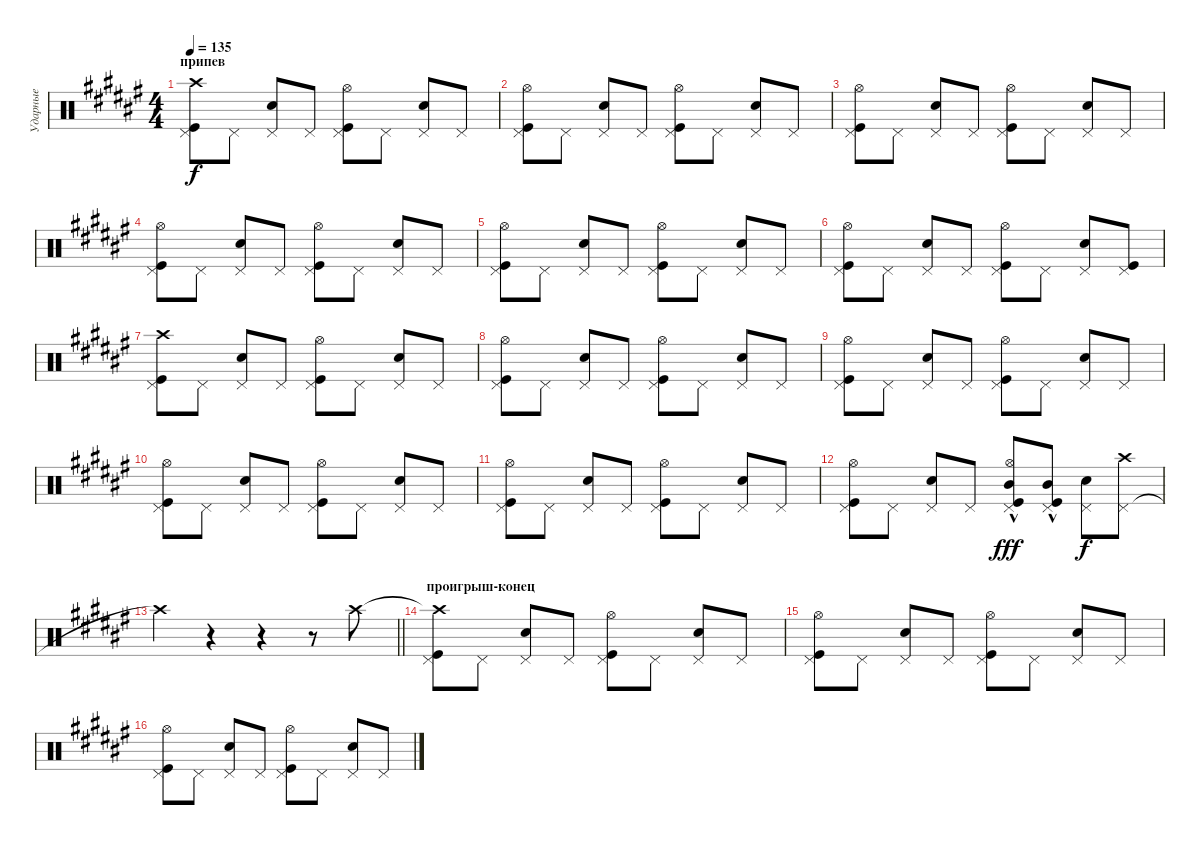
\track ("Ударные" "Ударные") {instrument percussion}
\staff {score}
\articulation defaults
\ts (4 4)
\section ("" "припев")
\tempo 135
\clef neutral
\ks d#minor
("Pedal Hi-Hat (hit)" "Kick (hit)" "Crash high (hit)").8{dy f} "Pedal Hi-Hat (hit)".8 ("Pedal Hi-Hat (hit)" "Snare (hit) 2").8 "Pedal Hi-Hat (hit)".8 ("Pedal Hi-Hat (hit)" "Kick (hit)" "Hi-Hat (open)").8 "Pedal Hi-Hat (hit)".8 ("Pedal Hi-Hat (hit)" "Snare (hit) 2").8 "Pedal Hi-Hat (hit)".8 |
("Pedal Hi-Hat (hit)" "Kick (hit)" "Hi-Hat (open)").8 "Pedal Hi-Hat (hit)".8 ("Pedal Hi-Hat (hit)" "Snare (hit) 2").8 "Pedal Hi-Hat (hit)".8 ("Pedal Hi-Hat (hit)" "Kick (hit)" "Hi-Hat (open)").8 "Pedal Hi-Hat (hit)".8 ("Pedal Hi-Hat (hit)" "Snare (hit) 2").8 "Pedal Hi-Hat (hit)".8 |
("Pedal Hi-Hat (hit)" "Kick (hit)" "Hi-Hat (open)").8 "Pedal Hi-Hat (hit)".8 ("Pedal Hi-Hat (hit)" "Snare (hit) 2").8 "Pedal Hi-Hat (hit)".8 ("Pedal Hi-Hat (hit)" "Kick (hit)" "Hi-Hat (open)").8 "Pedal Hi-Hat (hit)".8 ("Pedal Hi-Hat (hit)" "Snare (hit) 2").8 "Pedal Hi-Hat (hit)".8 |
("Pedal Hi-Hat (hit)" "Kick (hit)" "Hi-Hat (open)").8 "Pedal Hi-Hat (hit)".8 ("Pedal Hi-Hat (hit)" "Snare (hit) 2").8 "Pedal Hi-Hat (hit)".8 ("Pedal Hi-Hat (hit)" "Kick (hit)" "Hi-Hat (open)").8 "Pedal Hi-Hat (hit)".8 ("Pedal Hi-Hat (hit)" "Snare (hit) 2").8 "Pedal Hi-Hat (hit)".8 |
("Pedal Hi-Hat (hit)" "Kick (hit)" "Hi-Hat (open)").8 "Pedal Hi-Hat (hit)".8 ("Pedal Hi-Hat (hit)" "Snare (hit) 2").8 "Pedal Hi-Hat (hit)".8 ("Pedal Hi-Hat (hit)" "Kick (hit)" "Hi-Hat (open)").8 "Pedal Hi-Hat (hit)".8 ("Pedal Hi-Hat (hit)" "Snare (hit) 2").8 "Pedal Hi-Hat (hit)".8 |
("Pedal Hi-Hat (hit)" "Kick (hit)" "Hi-Hat (open)").8 "Pedal Hi-Hat (hit)".8 ("Pedal Hi-Hat (hit)" "Snare (hit) 2").8 "Pedal Hi-Hat (hit)".8 ("Pedal Hi-Hat (hit)" "Kick (hit)" "Hi-Hat (open)").8 "Pedal Hi-Hat (hit)".8 ("Pedal Hi-Hat (hit)" "Snare (hit) 2").8 ("Pedal Hi-Hat (hit)" "Kick (hit)").8 |
("Pedal Hi-Hat (hit)" "Kick (hit)" "Crash high (hit)").8 "Pedal Hi-Hat (hit)".8 ("Pedal Hi-Hat (hit)" "Snare (hit) 2").8 "Pedal Hi-Hat (hit)".8 ("Pedal Hi-Hat (hit)" "Kick (hit)" "Hi-Hat (open)").8 "Pedal Hi-Hat (hit)".8 ("Pedal Hi-Hat (hit)" "Snare (hit) 2").8 "Pedal Hi-Hat (hit)".8 |
("Pedal Hi-Hat (hit)" "Kick (hit)" "Hi-Hat (open)").8 "Pedal Hi-Hat (hit)".8 ("Pedal Hi-Hat (hit)" "Snare (hit) 2").8 "Pedal Hi-Hat (hit)".8 ("Pedal Hi-Hat (hit)" "Kick (hit)" "Hi-Hat (open)").8 "Pedal Hi-Hat (hit)".8 ("Pedal Hi-Hat (hit)" "Snare (hit) 2").8 "Pedal Hi-Hat (hit)".8 |
("Pedal Hi-Hat (hit)" "Kick (hit)" "Hi-Hat (open)").8 "Pedal Hi-Hat (hit)".8 ("Pedal Hi-Hat (hit)" "Snare (hit) 2").8 "Pedal Hi-Hat (hit)".8 ("Pedal Hi-Hat (hit)" "Kick (hit)" "Hi-Hat (open)").8 "Pedal Hi-Hat (hit)".8 ("Pedal Hi-Hat (hit)" "Snare (hit) 2").8 "Pedal Hi-Hat (hit)".8 |
("Pedal Hi-Hat (hit)" "Kick (hit)" "Hi-Hat (open)").8 "Pedal Hi-Hat (hit)".8 ("Pedal Hi-Hat (hit)" "Snare (hit) 2").8 "Pedal Hi-Hat (hit)".8 ("Pedal Hi-Hat (hit)" "Kick (hit)" "Hi-Hat (open)").8 "Pedal Hi-Hat (hit)".8 ("Pedal Hi-Hat (hit)" "Snare (hit) 2").8 "Pedal Hi-Hat (hit)".8 |
("Pedal Hi-Hat (hit)" "Kick (hit)" "Hi-Hat (open)").8 "Pedal Hi-Hat (hit)".8 ("Pedal Hi-Hat (hit)" "Snare (hit) 2").8 "Pedal Hi-Hat (hit)".8 ("Pedal Hi-Hat (hit)" "Kick (hit)" "Hi-Hat (open)").8 "Pedal Hi-Hat (hit)".8 ("Pedal Hi-Hat (hit)" "Snare (hit) 2").8 "Pedal Hi-Hat (hit)".8 |
("Pedal Hi-Hat (hit)" "Kick (hit)" "Hi-Hat (open)").8 "Pedal Hi-Hat (hit)".8 ("Pedal Hi-Hat (hit)" "Snare (hit) 2").8 "Pedal Hi-Hat (hit)".8 ("Pedal Hi-Hat (hit)" "Kick (hit)" "Hi-Hat (open)" "Mid Tom (hit)"{hac}).8{dy fff} ("Pedal Hi-Hat (hit)" "Kick (hit)" "Mid Tom (hit)"{hac}).8 ("Pedal Hi-Hat (hit)" "Snare (hit) 2").8{dy f} ("Pedal Hi-Hat (hit)" "Crash high (hit)").8 |
\barLineRight lightlight "Crash high (hit)"{t}.4
r.4 r.4 r.8 "Crash high (hit)".8 |
\section ("" " проигрыш-конец")
("Crash high (hit)"{t} "Pedal Hi-Hat (hit)" "Kick (hit)").8 "Pedal Hi-Hat (hit)".8 ("Pedal Hi-Hat (hit)" "Snare (hit) 2").8 "Pedal Hi-Hat (hit)".8 ("Pedal Hi-Hat (hit)" "Kick (hit)" "Hi-Hat (open)").8 "Pedal Hi-Hat (hit)".8 ("Pedal Hi-Hat (hit)" "Snare (hit) 2").8 "Pedal Hi-Hat (hit)".8 |
("Pedal Hi-Hat (hit)" "Kick (hit)" "Hi-Hat (open)").8 "Pedal Hi-Hat (hit)".8 ("Pedal Hi-Hat (hit)" "Snare (hit) 2").8 "Pedal Hi-Hat (hit)".8 ("Pedal Hi-Hat (hit)" "Kick (hit)" "Hi-Hat (open)").8 "Pedal Hi-Hat (hit)".8 ("Pedal Hi-Hat (hit)" "Snare (hit) 2").8 "Pedal Hi-Hat (hit)".8 |
("Pedal Hi-Hat (hit)" "Kick (hit)" "Hi-Hat (open)").8 "Pedal Hi-Hat (hit)".8 ("Pedal Hi-Hat (hit)" "Snare (hit) 2").8 "Pedal Hi-Hat (hit)".8 ("Pedal Hi-Hat (hit)" "Kick (hit)" "Hi-Hat (open)").8 "Pedal Hi-Hat (hit)".8 ("Pedal Hi-Hat (hit)" "Snare (hit) 2").8 "Pedal Hi-Hat (hit)".8
